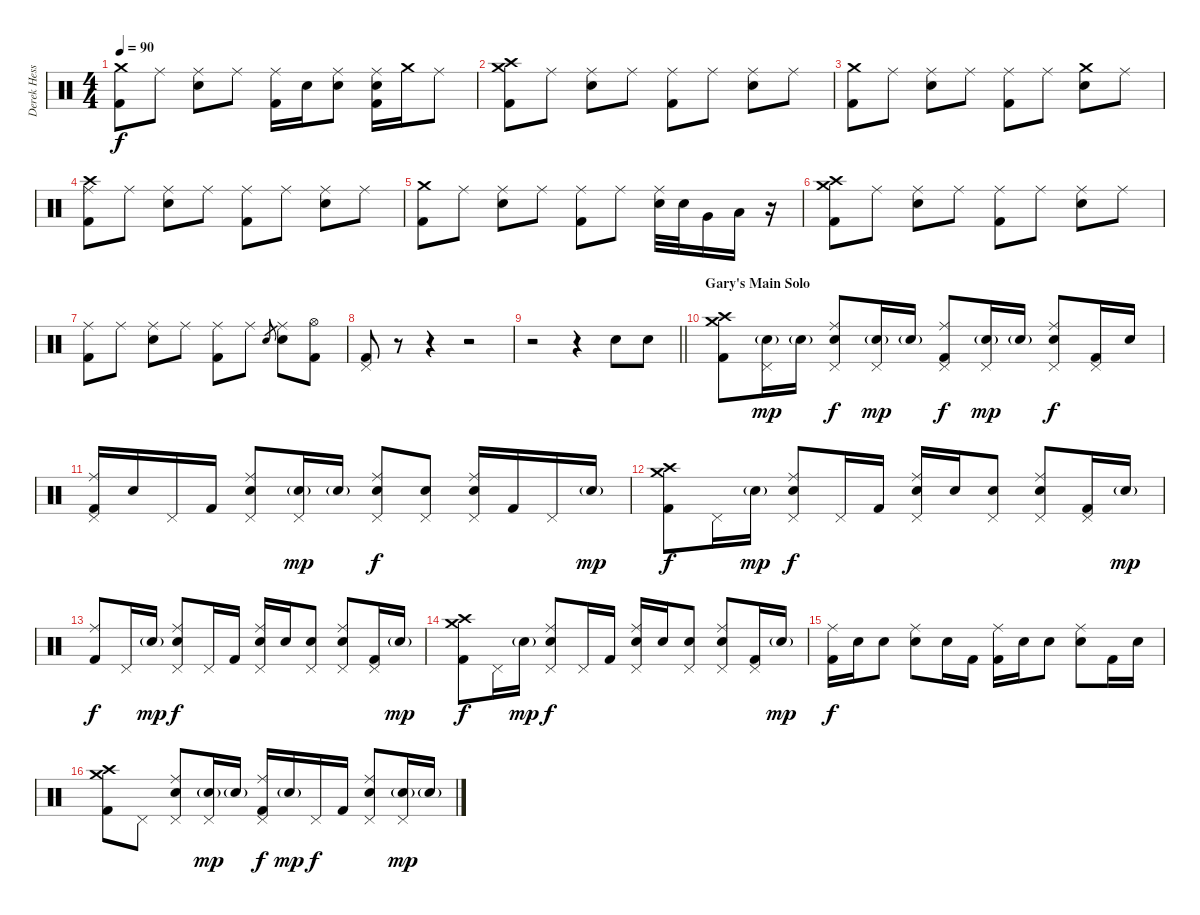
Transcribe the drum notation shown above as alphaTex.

\track ("Derek Hess (Drums and Percussion)" "Derek Hess") {instrument percussion}
\staff {score}
\articulation defaults
\ts (4 4)
\tempo 90
\clef neutral
\ks c
("Crash medium (hit)" "Kick (hit) 2").8{dy f} "Ride (middle)".8 ("Ride (middle)" "Snare (hit) 2").8 "Ride (middle)".8 ("Ride (middle)" "Kick (hit) 2").16 "Snare (hit) 2".16 ("Ride (middle)" "Snare (hit) 2").8 ("Ride (middle)" "Snare (hit) 2" "Kick (hit) 2").16 "Crash medium (hit)".16 "Ride (middle)".8 |
("Crash medium (hit)" "Crash high (hit)" "Kick (hit) 2").8 "Ride (middle)".8 ("Ride (middle)" "Snare (hit) 2").8 "Ride (middle)".8 ("Ride (middle)" "Kick (hit) 2").8 "Ride (middle)".8 ("Ride (middle)" "Snare (hit) 2").8 "Ride (middle)".8 |
("Crash medium (hit)" "Kick (hit) 2").8 "Ride (middle)".8 ("Ride (middle)" "Snare (hit) 2").8 "Ride (middle)".8 ("Ride (middle)" "Kick (hit) 2").8 "Ride (middle)".8 ("Crash medium (hit)" "Snare (hit) 2").8 "Ride (middle)".8 |
("Crash high (hit)" "Ride (middle)" "Kick (hit) 2").8 "Ride (middle)".8 ("Ride (middle)" "Snare (hit) 2").8 "Ride (middle)".8 ("Ride (middle)" "Kick (hit) 2").8 "Ride (middle)".8 ("Ride (middle)" "Snare (hit) 2").8 "Ride (middle)".8 |
("Crash medium (hit)" "Kick (hit) 2").8 "Ride (middle)".8 ("Ride (middle)" "Snare (hit) 2").8 "Ride (middle)".8 ("Ride (middle)" "Kick (hit) 2").8 "Ride (middle)".8 ("Ride (middle)" "Snare (hit) 2").32 "Snare (hit) 2".32 "Very Low Tom (hit)".16 "Low Floor Tom (hit)".16 r.16 |
("Crash medium (hit)" "Crash high (hit)" "Kick (hit) 2").8 "Ride (middle)".8 ("Ride (middle)" "Snare (hit) 2").8 "Ride (middle)".8 ("Ride (middle)" "Kick (hit) 2").8 "Ride (middle)".8 ("Ride (middle)" "Snare (hit) 2").8 "Ride (middle)".8 |
("Ride (middle)" "Kick (hit) 2").8 "Ride (middle)".8 ("Ride (middle)" "Snare (hit) 2").8 "Ride (middle)".8 ("Ride (middle)" "Kick (hit) 2").8 "Ride (middle)".8 "Snare (hit) 2".8{gr} ("Ride (middle)" "Snare (hit) 2").8 ("Hi-Hat (open)" "Kick (hit) 2").8 |
("Pedal Hi-Hat (hit)" "Kick (hit) 2").8 r.8 r.4 r.2 |
\barLineRight lightlight
r.2 r.4 "Snare (hit) 2".8 "Snare (hit) 2".8 |
\section ("" "Gary's Main Solo")
("Crash medium (hit)" "Crash high (hit)" "Kick (hit) 2").8 ("Snare (hit) 2"{g} "Pedal Hi-Hat (hit)").16{dy mp} "Snare (hit) 2"{g}.16 ("Ride (middle)" "Snare (hit) 2" "Pedal Hi-Hat (hit)").8{dy f} ("Snare (hit) 2"{g} "Pedal Hi-Hat (hit)").16{dy mp} "Snare (hit) 2"{g}.16 ("Ride (middle)" "Pedal Hi-Hat (hit)" "Kick (hit) 2").8{dy f} ("Snare (hit) 2"{g} "Pedal Hi-Hat (hit)").16{dy mp} "Snare (hit) 2"{g}.16 ("Ride (middle)" "Snare (hit) 2" "Pedal Hi-Hat (hit)").8{dy f} ("Pedal Hi-Hat (hit)" "Kick (hit) 2").16 "Snare (hit) 2".16 |
("Ride (middle)" "Pedal Hi-Hat (hit)" "Kick (hit) 2").16 "Snare (hit) 2".16 "Pedal Hi-Hat (hit)".16 "Kick (hit) 2".16 ("Ride (middle)" "Snare (hit) 2" "Pedal Hi-Hat (hit)").8 ("Snare (hit) 2"{g} "Pedal Hi-Hat (hit)").16{dy mp} "Snare (hit) 2"{g}.16 ("Ride (middle)" "Snare (hit) 2" "Pedal Hi-Hat (hit)").8{dy f} ("Snare (hit) 2" "Pedal Hi-Hat (hit)").8 ("Ride (middle)" "Snare (hit) 2" "Pedal Hi-Hat (hit)").16 "Kick (hit) 2".16 "Pedal Hi-Hat (hit)".16 "Snare (hit) 2"{g}.16{dy mp} |
("Crash medium (hit)" "Crash high (hit)" "Kick (hit) 2").8{dy f} "Pedal Hi-Hat (hit)".16 "Snare (hit) 2"{g}.16{dy mp} ("Ride (middle)" "Snare (hit) 2" "Pedal Hi-Hat (hit)").8{dy f} "Pedal Hi-Hat (hit)".16 "Kick (hit) 2".16 ("Ride (middle)" "Snare (hit) 2" "Pedal Hi-Hat (hit)").16 "Snare (hit) 2".16 ("Snare (hit) 2" "Pedal Hi-Hat (hit)").8 ("Ride (middle)" "Snare (hit) 2" "Pedal Hi-Hat (hit)").8 ("Pedal Hi-Hat (hit)" "Kick (hit) 2").16 "Snare (hit) 2"{g}.16{dy mp} |
("Ride (middle)" "Kick (hit) 2").8{dy f} "Pedal Hi-Hat (hit)".16 "Snare (hit) 2"{g}.16{dy mp} ("Ride (middle)" "Snare (hit) 2" "Pedal Hi-Hat (hit)").8{dy f} "Pedal Hi-Hat (hit)".16 "Kick (hit) 2".16 ("Ride (middle)" "Snare (hit) 2" "Pedal Hi-Hat (hit)").16 "Snare (hit) 2".16 ("Snare (hit) 2" "Pedal Hi-Hat (hit)").8 ("Ride (middle)" "Snare (hit) 2" "Pedal Hi-Hat (hit)").8 ("Pedal Hi-Hat (hit)" "Kick (hit) 2").16 "Snare (hit) 2"{g}.16{dy mp} |
("Crash medium (hit)" "Crash high (hit)" "Kick (hit) 2").8{dy f} "Pedal Hi-Hat (hit)".16 "Snare (hit) 2"{g}.16{dy mp} ("Ride (middle)" "Snare (hit) 2" "Pedal Hi-Hat (hit)").8{dy f} "Pedal Hi-Hat (hit)".16 "Kick (hit) 2".16 ("Ride (middle)" "Snare (hit) 2" "Pedal Hi-Hat (hit)").16 "Snare (hit) 2".16 ("Snare (hit) 2" "Pedal Hi-Hat (hit)").8 ("Ride (middle)" "Snare (hit) 2" "Pedal Hi-Hat (hit)").8 ("Pedal Hi-Hat (hit)" "Kick (hit) 2").16 "Snare (hit) 2"{g}.16{dy mp} |
("Ride (middle)" "Kick (hit) 2").16{dy f} "Snare (hit) 2".16 "Snare (hit) 2".8 ("Ride (middle)" "Snare (hit) 2").8 "Snare (hit) 2".16 "Kick (hit) 2".16 ("Ride (middle)" "Kick (hit) 2").16 "Snare (hit) 2".16 "Snare (hit) 2".8 ("Ride (middle)" "Snare (hit) 2").8 "Kick (hit) 2".16 "Snare (hit) 2".16 |
("Crash medium (hit)" "Crash high (hit)" "Kick (hit) 2").8 "Pedal Hi-Hat (hit)".8 ("Ride (middle)" "Snare (hit) 2" "Pedal Hi-Hat (hit)").8 ("Snare (hit) 2"{g} "Pedal Hi-Hat (hit)").16{dy mp} "Snare (hit) 2"{g}.16 ("Ride (middle)" "Pedal Hi-Hat (hit)" "Kick (hit) 2").16{dy f} "Snare (hit) 2"{g}.16{dy mp} "Pedal Hi-Hat (hit)".16{dy f} "Kick (hit) 2".16 ("Ride (middle)" "Snare (hit) 2" "Pedal Hi-Hat (hit)").8 ("Snare (hit) 2"{g} "Pedal Hi-Hat (hit)").16{dy mp} "Snare (hit) 2"{g}.16
